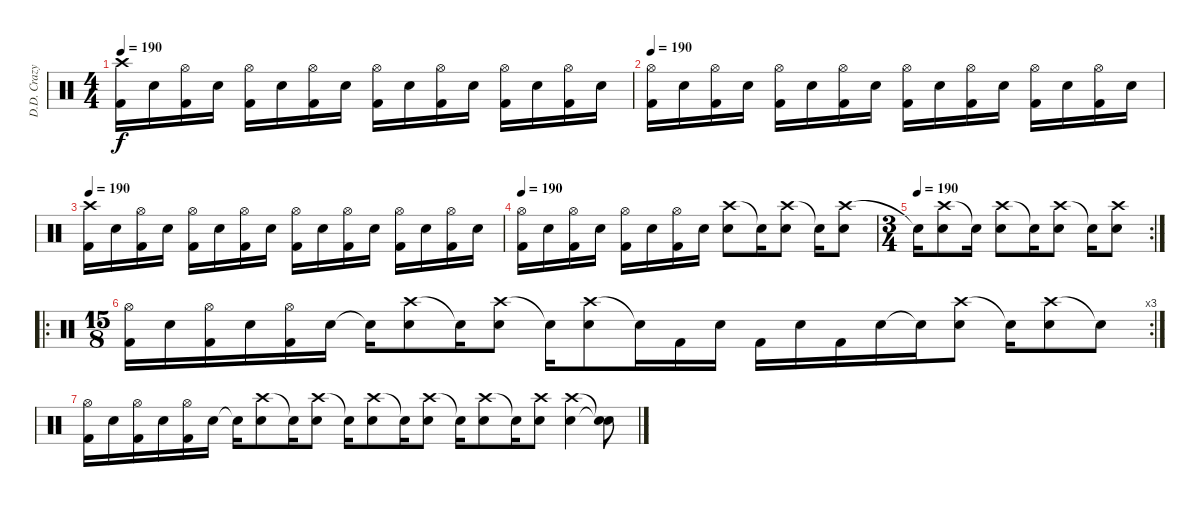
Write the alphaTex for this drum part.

\track ("D.D. Crazy" "D.D. Crazy") {instrument percussion}
\staff {score}
\articulation defaults
\ts (4 4)
\tempo 190
\clef neutral
\ks c
("Crash high (hit)" "Kick (hit) 2").16{dy f} "Snare (hit) 2".16 ("Hi-Hat (open)" "Kick (hit) 2").16 "Snare (hit) 2".16 ("Hi-Hat (open)" "Kick (hit) 2").16 "Snare (hit) 2".16 ("Hi-Hat (open)" "Kick (hit) 2").16 "Snare (hit) 2".16 ("Hi-Hat (open)" "Kick (hit) 2").16 "Snare (hit) 2".16 ("Hi-Hat (open)" "Kick (hit) 2").16 "Snare (hit) 2".16 ("Hi-Hat (open)" "Kick (hit) 2").16 "Snare (hit) 2".16 ("Hi-Hat (open)" "Kick (hit) 2").16 "Snare (hit) 2".16 |
\tempo 190
("Hi-Hat (open)" "Kick (hit) 2").16 "Snare (hit) 2".16 ("Hi-Hat (open)" "Kick (hit) 2").16 "Snare (hit) 2".16 ("Hi-Hat (open)" "Kick (hit) 2").16 "Snare (hit) 2".16 ("Hi-Hat (open)" "Kick (hit) 2").16 "Snare (hit) 2".16 ("Hi-Hat (open)" "Kick (hit) 2").16 "Snare (hit) 2".16 ("Hi-Hat (open)" "Kick (hit) 2").16 "Snare (hit) 2".16 ("Hi-Hat (open)" "Kick (hit) 2").16 "Snare (hit) 2".16 ("Hi-Hat (open)" "Kick (hit) 2").16 "Snare (hit) 2".16 |
\tempo 190
("Crash high (hit)" "Kick (hit) 2").16 "Snare (hit) 2".16 ("Hi-Hat (open)" "Kick (hit) 2").16 "Snare (hit) 2".16 ("Hi-Hat (open)" "Kick (hit) 2").16 "Snare (hit) 2".16 ("Hi-Hat (open)" "Kick (hit) 2").16 "Snare (hit) 2".16 ("Hi-Hat (open)" "Kick (hit) 2").16 "Snare (hit) 2".16 ("Hi-Hat (open)" "Kick (hit) 2").16 "Snare (hit) 2".16 ("Hi-Hat (open)" "Kick (hit) 2").16 "Snare (hit) 2".16 ("Hi-Hat (open)" "Kick (hit) 2").16 "Snare (hit) 2".16 |
\tempo 190
("Hi-Hat (open)" "Kick (hit) 2").16 "Snare (hit) 2".16 ("Hi-Hat (open)" "Kick (hit) 2").16 "Snare (hit) 2".16 ("Hi-Hat (open)" "Kick (hit) 2").16 "Snare (hit) 2".16 ("Hi-Hat (open)" "Kick (hit) 2").16 "Snare (hit) 2".16 ("Crash high (hit)" "Snare (hit) 2").8 "Snare (hit)"{t}.16 ("Crash high (hit)" "Snare (hit) 2").8 "Snare (hit)"{t}.16 ("Crash high (hit)" "Snare (hit) 2").8 |
\rc 2
\ts (3 4)
\tempo (190)
"Snare (hit)"{t}.16 ("Crash high (hit)" "Snare (hit) 2").8 "Snare (hit)"{t}.16 ("Crash high (hit)" "Snare (hit) 2").8 "Snare (hit)"{t}.16 ("Crash high (hit)" "Snare (hit) 2").8 "Snare (hit)"{t}.16 ("Crash high (hit)" "Snare (hit) 2").8 |
\ro
\rc 3
\ts (15 8)
("Hi-Hat (open)" "Kick (hit) 2").16 "Snare (hit) 2".16 ("Hi-Hat (open)" "Kick (hit) 2").16 "Snare (hit) 2".16 ("Hi-Hat (open)" "Kick (hit) 2").16 "Snare (hit) 2".16 "Snare (hit)"{t}.16 ("Crash high (hit)" "Snare (hit) 2").8 "Snare (hit)"{t}.16 ("Crash high (hit)" "Snare (hit) 2").8 "Snare (hit)"{t}.16 ("Crash high (hit)" "Snare (hit) 2").8 "Snare (hit)"{t}.16 "Kick (hit) 2".16 "Snare (hit) 2".16 "Kick (hit) 2".16 "Snare (hit) 2".16 "Kick (hit) 2".16 "Snare (hit) 2".16 "Snare (hit)"{t}.16 ("Crash high (hit)" "Snare (hit) 2").8 "Snare (hit)"{t}.16 ("Crash high (hit)" "Snare (hit) 2").8 "Snare (hit)"{t}.8 |
("Hi-Hat (open)" "Kick (hit) 2").16 "Snare (hit) 2".16 ("Hi-Hat (open)" "Kick (hit) 2").16 "Snare (hit) 2".16 ("Hi-Hat (open)" "Kick (hit) 2").16 "Snare (hit) 2".16 "Snare (hit)"{t}.16 ("Crash high (hit)" "Snare (hit) 2").8 "Snare (hit)"{t}.16 ("Crash high (hit)" "Snare (hit) 2").8 "Snare (hit)"{t}.16 ("Crash high (hit)" "Snare (hit) 2").8 "Snare (hit)"{t}.16 ("Crash high (hit)" "Snare (hit) 2").8 "Snare (hit)"{t}.16 ("Crash high (hit)" "Snare (hit) 2").8 "Snare (hit)"{t}.16 ("Crash high (hit)" "Snare (hit) 2").8 ("Crash high (hit)" "Snare (hit) 2").4 ("Snare (hit)"{t} "Snare (hit)"{t}).8
